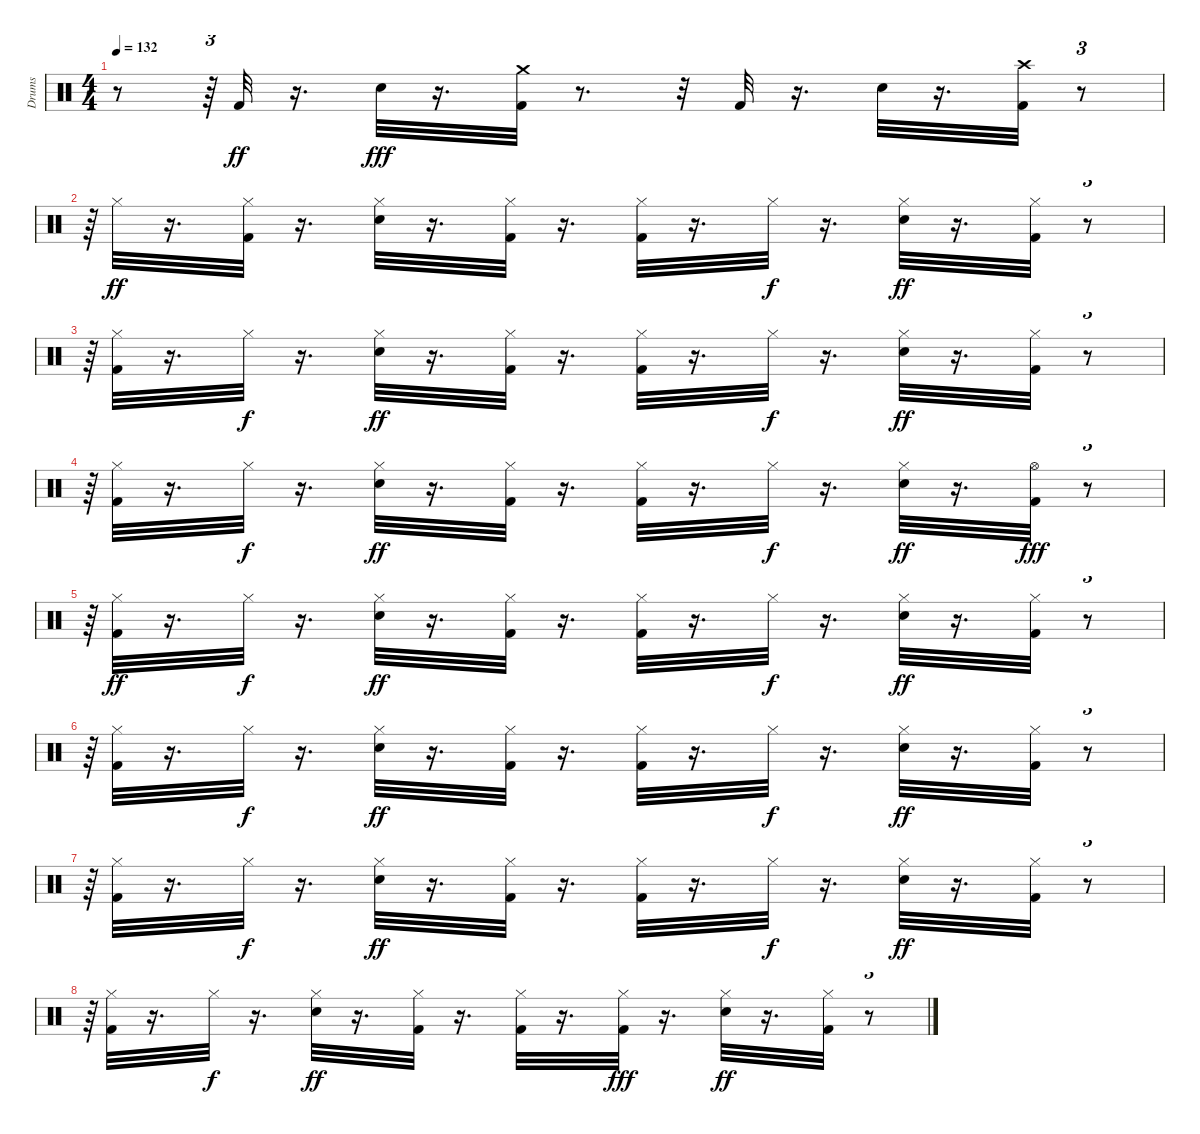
\track ("Drums" "Drums") {instrument percussion}
\staff {score}
\articulation defaults
\ts (4 4)
\tempo 132
\clef neutral
\ks c
r.8{dy fff} r.64{tu (3 2)} "Kick (hit) 2".32{dy ff} r.16{d} "Snare (hit) 2".32{dy fff} r.16{d} ("Kick (hit) 2" "Crash medium (hit)").32 r.8{d} r.32 "Kick (hit) 2".32 r.16{d} "Snare (hit) 2".32 r.16{d} ("Kick (hit) 2" "Crash high (hit)").32 r.8{tu (3 2)} |
r.64{tu (3 2)} "Hi-Hat (closed)".32{dy ff} r.16{d} ("Kick (hit) 2" "Hi-Hat (closed)").32 r.16{d} ("Snare (hit) 2" "Hi-Hat (closed)").32 r.16{d} ("Kick (hit) 2" "Hi-Hat (closed)").32 r.16{d} ("Kick (hit) 2" "Hi-Hat (closed)").32 r.16{d} "Hi-Hat (closed)".32{dy f} r.16{d} ("Snare (hit) 2" "Hi-Hat (closed)").32{dy ff} r.16{d} ("Kick (hit) 2" "Hi-Hat (closed)").32 r.8{tu (3 2)} |
r.64{tu (3 2)} ("Kick (hit) 2" "Hi-Hat (closed)").32 r.16{d} "Hi-Hat (closed)".32{dy f} r.16{d} ("Snare (hit) 2" "Hi-Hat (closed)").32{dy ff} r.16{d} ("Kick (hit) 2" "Hi-Hat (closed)").32 r.16{d} ("Kick (hit) 2" "Hi-Hat (closed)").32 r.16{d} "Hi-Hat (closed)".32{dy f} r.16{d} ("Snare (hit) 2" "Hi-Hat (closed)").32{dy ff} r.16{d} ("Kick (hit) 2" "Hi-Hat (closed)").32 r.8{tu (3 2)} |
r.64{tu (3 2)} ("Kick (hit) 2" "Hi-Hat (closed)").32 r.16{d} "Hi-Hat (closed)".32{dy f} r.16{d} ("Snare (hit) 2" "Hi-Hat (closed)").32{dy ff} r.16{d} ("Kick (hit) 2" "Hi-Hat (closed)").32 r.16{d} ("Kick (hit) 2" "Hi-Hat (closed)").32 r.16{d} "Hi-Hat (closed)".32{dy f} r.16{d} ("Snare (hit) 2" "Hi-Hat (closed)").32{dy ff} r.16{d} ("Kick (hit) 2" "Hi-Hat (open)").32{dy fff} r.8{tu (3 2)} |
r.64{tu (3 2)} ("Kick (hit) 2" "Hi-Hat (closed)").32{dy ff} r.16{d} "Hi-Hat (closed)".32{dy f} r.16{d} ("Snare (hit) 2" "Hi-Hat (closed)").32{dy ff} r.16{d} ("Kick (hit) 2" "Hi-Hat (closed)").32 r.16{d} ("Kick (hit) 2" "Hi-Hat (closed)").32 r.16{d} "Hi-Hat (closed)".32{dy f} r.16{d} ("Snare (hit) 2" "Hi-Hat (closed)").32{dy ff} r.16{d} ("Kick (hit) 2" "Hi-Hat (closed)").32 r.8{tu (3 2)} |
r.64{tu (3 2)} ("Kick (hit) 2" "Hi-Hat (closed)").32 r.16{d} "Hi-Hat (closed)".32{dy f} r.16{d} ("Snare (hit) 2" "Hi-Hat (closed)").32{dy ff} r.16{d} ("Kick (hit) 2" "Hi-Hat (closed)").32 r.16{d} ("Kick (hit) 2" "Hi-Hat (closed)").32 r.16{d} "Hi-Hat (closed)".32{dy f} r.16{d} ("Snare (hit) 2" "Hi-Hat (closed)").32{dy ff} r.16{d} ("Kick (hit) 2" "Hi-Hat (closed)").32 r.8{tu (3 2)} |
r.64{tu (3 2)} ("Kick (hit) 2" "Hi-Hat (closed)").32 r.16{d} "Hi-Hat (closed)".32{dy f} r.16{d} ("Snare (hit) 2" "Hi-Hat (closed)").32{dy ff} r.16{d} ("Kick (hit) 2" "Hi-Hat (closed)").32 r.16{d} ("Kick (hit) 2" "Hi-Hat (closed)").32 r.16{d} "Hi-Hat (closed)".32{dy f} r.16{d} ("Snare (hit) 2" "Hi-Hat (closed)").32{dy ff} r.16{d} ("Kick (hit) 2" "Hi-Hat (closed)").32 r.8{tu (3 2)} |
r.64{tu (3 2)} ("Kick (hit) 2" "Hi-Hat (closed)").32 r.16{d} "Hi-Hat (closed)".32{dy f} r.16{d} ("Snare (hit) 2" "Hi-Hat (closed)").32{dy ff} r.16{d} ("Kick (hit) 2" "Hi-Hat (closed)").32 r.16{d} ("Kick (hit) 2" "Hi-Hat (closed)").32 r.16{d} ("Kick (hit) 2" "Hi-Hat (closed)").32{dy fff} r.16{d} ("Snare (hit) 2" "Hi-Hat (closed)").32{dy ff} r.16{d} ("Kick (hit) 2" "Hi-Hat (closed)").32 r.8{tu (3 2)}
